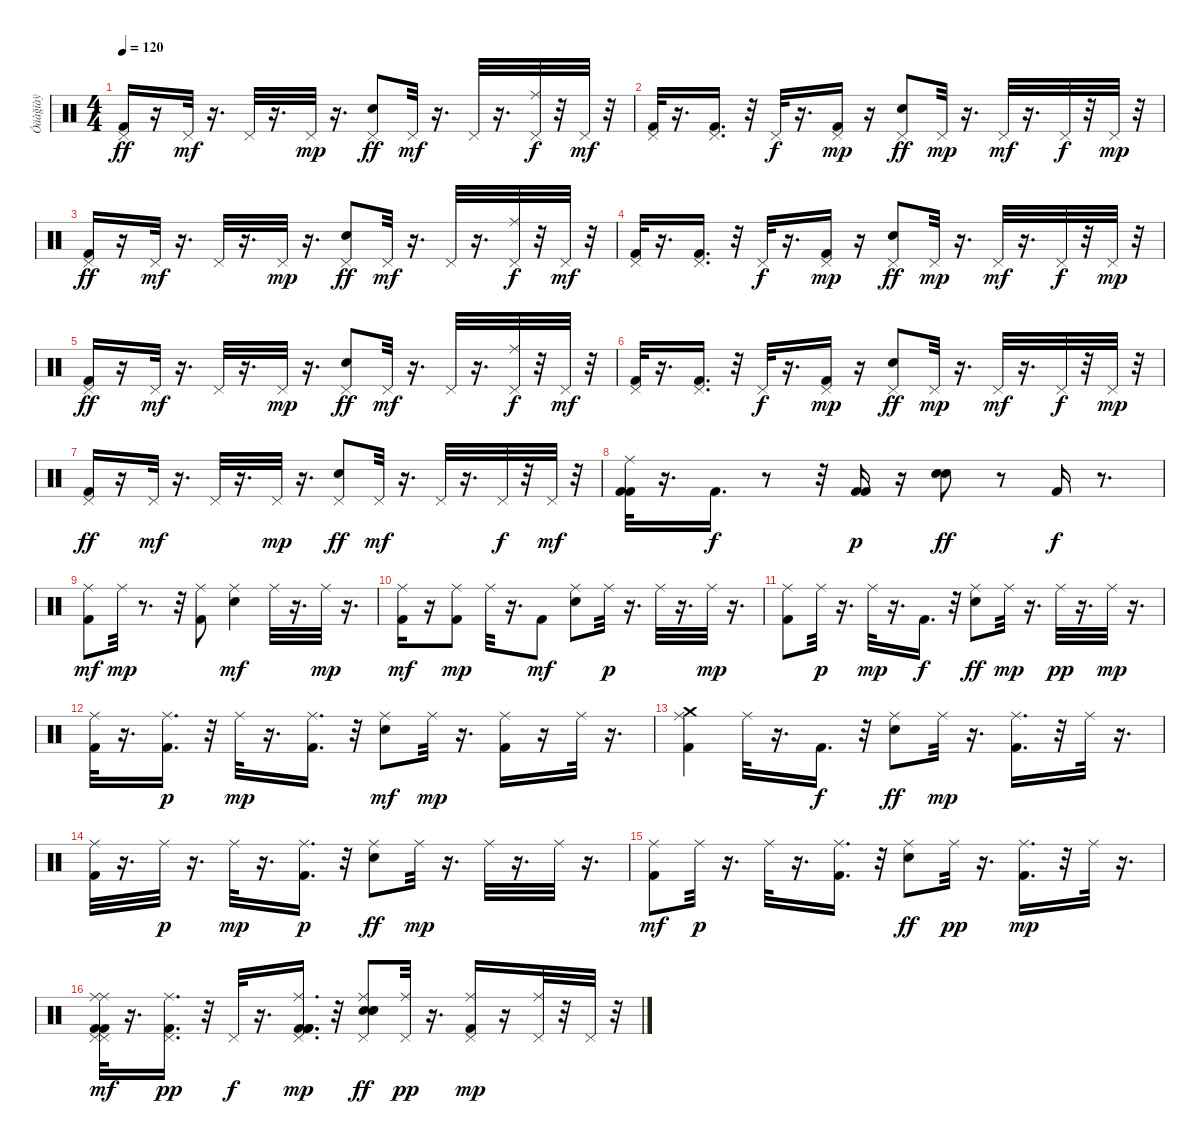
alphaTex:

\track ("Óäàğíàÿ" "Óäàğíàÿ") {instrument percussion}
\staff {score}
\articulation defaults
\ts (4 4)
\tempo 120
\clef neutral
\ks c
("Kick (hit) 2" "Pedal Hi-Hat (hit)").16{dy ff} r.16 "Pedal Hi-Hat (hit)".32{dy mf} r.16{d} "Pedal Hi-Hat (hit)".32 r.16{d} "Pedal Hi-Hat (hit)".32{dy mp} r.16{d} ("Pedal Hi-Hat (hit)" "Snare (hit) 2").8{dy ff} "Pedal Hi-Hat (hit)".32{dy mf} r.16{d} "Pedal Hi-Hat (hit)".32 r.16{d} ("Ride (middle)" "Pedal Hi-Hat (hit)").32{dy f} r.32 "Pedal Hi-Hat (hit)".32{dy mf} r.32 |
("Kick (hit) 2" "Pedal Hi-Hat (hit)").32 r.16{d} ("Kick (hit) 2" "Pedal Hi-Hat (hit)").16{d} r.32 "Pedal Hi-Hat (hit)".32{dy f} r.16{d} ("Kick (hit) 2" "Pedal Hi-Hat (hit)").16{dy mp} r.16 ("Pedal Hi-Hat (hit)" "Snare (hit) 2").8{dy ff} "Pedal Hi-Hat (hit)".32{dy mp} r.16{d} "Pedal Hi-Hat (hit)".32{dy mf} r.16{d} "Pedal Hi-Hat (hit)".32{dy f} r.32 "Pedal Hi-Hat (hit)".32{dy mp} r.32 |
("Kick (hit) 2" "Pedal Hi-Hat (hit)").16{dy ff} r.16 "Pedal Hi-Hat (hit)".32{dy mf} r.16{d} "Pedal Hi-Hat (hit)".32 r.16{d} "Pedal Hi-Hat (hit)".32{dy mp} r.16{d} ("Pedal Hi-Hat (hit)" "Snare (hit) 2").8{dy ff} "Pedal Hi-Hat (hit)".32{dy mf} r.16{d} "Pedal Hi-Hat (hit)".32 r.16{d} ("Ride (middle)" "Pedal Hi-Hat (hit)").32{dy f} r.32 "Pedal Hi-Hat (hit)".32{dy mf} r.32 |
("Kick (hit) 2" "Pedal Hi-Hat (hit)").32 r.16{d} ("Kick (hit) 2" "Pedal Hi-Hat (hit)").16{d} r.32 "Pedal Hi-Hat (hit)".32{dy f} r.16{d} ("Kick (hit) 2" "Pedal Hi-Hat (hit)").16{dy mp} r.16 ("Pedal Hi-Hat (hit)" "Snare (hit) 2").8{dy ff} "Pedal Hi-Hat (hit)".32{dy mp} r.16{d} "Pedal Hi-Hat (hit)".32{dy mf} r.16{d} "Pedal Hi-Hat (hit)".32{dy f} r.32 "Pedal Hi-Hat (hit)".32{dy mp} r.32 |
("Kick (hit) 2" "Pedal Hi-Hat (hit)").16{dy ff} r.16 "Pedal Hi-Hat (hit)".32{dy mf} r.16{d} "Pedal Hi-Hat (hit)".32 r.16{d} "Pedal Hi-Hat (hit)".32{dy mp} r.16{d} ("Pedal Hi-Hat (hit)" "Snare (hit) 2").8{dy ff} "Pedal Hi-Hat (hit)".32{dy mf} r.16{d} "Pedal Hi-Hat (hit)".32 r.16{d} ("Ride (middle)" "Pedal Hi-Hat (hit)").32{dy f} r.32 "Pedal Hi-Hat (hit)".32{dy mf} r.32 |
("Kick (hit) 2" "Pedal Hi-Hat (hit)").32 r.16{d} ("Kick (hit) 2" "Pedal Hi-Hat (hit)").16{d} r.32 "Pedal Hi-Hat (hit)".32{dy f} r.16{d} ("Kick (hit) 2" "Pedal Hi-Hat (hit)").16{dy mp} r.16 ("Pedal Hi-Hat (hit)" "Snare (hit) 2").8{dy ff} "Pedal Hi-Hat (hit)".32{dy mp} r.16{d} "Pedal Hi-Hat (hit)".32{dy mf} r.16{d} "Pedal Hi-Hat (hit)".32{dy f} r.32 "Pedal Hi-Hat (hit)".32{dy mp} r.32 |
("Kick (hit) 2" "Pedal Hi-Hat (hit)").16{dy ff} r.16 "Pedal Hi-Hat (hit)".32{dy mf} r.16{d} "Pedal Hi-Hat (hit)".32 r.16{d} "Pedal Hi-Hat (hit)".32{dy mp} r.16{d} ("Pedal Hi-Hat (hit)" "Snare (hit) 2").8{dy ff} "Pedal Hi-Hat (hit)".32{dy mf} r.16{d} "Pedal Hi-Hat (hit)".32 r.16{d} "Pedal Hi-Hat (hit)".32{dy f} r.32 "Pedal Hi-Hat (hit)".32{dy mf} r.32 |
("Ride (middle)" "Kick (hit) 2" "Kick (hit) 2").32 r.16{d} "Kick (hit) 2".16{d dy f} r.8 r.32 ("Kick (hit) 2" "Kick (hit) 2").16{dy p} r.16 ("Snare (hit) 2" "Snare (hit) 2").8{dy ff} r.8 "Kick (hit) 2".16{dy f} r.8{d} |
("Ride (middle)" "Kick (hit) 2").8{dy mf} "Ride (middle)".32{dy mp} r.8{d} r.32 ("Kick (hit) 2" "Ride (middle)").8 ("Snare (hit) 2" "Ride (middle)").4{dy mf} "Ride (middle)".32 r.16{d} "Ride (middle)".32{dy mp} r.16{d} |
("Ride (middle)" "Kick (hit) 2").16{dy mf} r.16 ("Kick (hit) 2" "Ride (middle)").8{dy mp} "Ride (middle)".32 r.16{d} "Kick (hit) 2".8{dy mf} ("Ride (middle)" "Snare (hit) 2").8 "Ride (middle)".32{dy p} r.16{d} "Ride (middle)".32 r.16{d} "Ride (middle)".32{dy mp} r.16{d} |
("Kick (hit) 2" "Ride (middle)").8 "Ride (middle)".32{dy p} r.16{d} "Ride (middle)".32{dy mp} r.16{d} "Kick (hit) 2".16{d dy f} r.32 ("Ride (middle)" "Snare (hit) 2").8{dy ff} "Ride (middle)".32{dy mp} r.16{d} "Ride (middle)".32{dy pp} r.16{d} "Ride (middle)".32{dy mp} r.16{d} |
("Kick (hit) 2" "Ride (middle)").32 r.16{d} ("Kick (hit) 2" "Ride (middle)").16{d dy p} r.32 "Ride (middle)".32{dy mp} r.16{d} ("Kick (hit) 2" "Ride (middle)").16{d} r.32 ("Snare (hit) 2" "Ride (middle)").8{dy mf} "Ride (middle)".32{dy mp} r.16{d} ("Kick (hit) 2" "Ride (middle)").16 r.16 "Ride (middle)".32 r.16{d} |
("Kick (hit) 2" "Crash medium (hit)" "Ride (middle)").4 "Ride (middle)".32 r.16{d} "Kick (hit) 2".16{d dy f} r.32 ("Ride (middle)" "Snare (hit) 2").8{dy ff} "Ride (middle)".32{dy mp} r.16{d} ("Kick (hit) 2" "Ride (middle)").16{d} r.32 "Ride (middle)".32 r.16{d} |
("Kick (hit) 2" "Ride (middle)").32 r.16{d} "Ride (middle)".32{dy p} r.16{d} "Ride (middle)".32{dy mp} r.16{d} ("Ride (middle)" "Kick (hit) 2").16{d dy p} r.32 ("Ride (middle)" "Snare (hit) 2").8{dy ff} "Ride (middle)".32{dy mp} r.16{d} "Ride (middle)".32 r.16{d} "Ride (middle)".32 r.16{d} |
("Ride (middle)" "Kick (hit) 2").8{dy mf} "Ride (middle)".32{dy p} r.16{d} "Ride (middle)".32 r.16{d} ("Ride (middle)" "Kick (hit) 2").16{d} r.32 ("Ride (middle)" "Snare (hit) 2").8{dy ff} "Ride (middle)".32{dy pp} r.16{d} ("Kick (hit) 2" "Ride (middle)").16{d dy mp} r.32 "Ride (middle)".32 r.16{d} |
("Ride (middle)" "Pedal Hi-Hat (hit)" "Kick (hit) 2" "Kick (hit) 2" "Pedal Hi-Hat (hit)" "Ride (middle)").32{dy mf} r.16{d} ("Kick (hit) 2" "Pedal Hi-Hat (hit)" "Ride (middle)").16{d dy pp} r.32 "Pedal Hi-Hat (hit)".32{dy f} r.16{d} ("Kick (hit) 2" "Kick (hit) 2" "Pedal Hi-Hat (hit)" "Ride (middle)" "Kick (hit) 2").16{d dy mp} r.32 ("Snare (hit) 2" "Pedal Hi-Hat (hit)" "Snare (hit) 2" "Ride (middle)" "Snare (hit) 2").8{dy ff} ("Pedal Hi-Hat (hit)" "Ride (middle)").32{dy pp} r.16{d} ("Kick (hit) 2" "Pedal Hi-Hat (hit)" "Ride (middle)").16{dy mp} r.16 ("Pedal Hi-Hat (hit)" "Ride (middle)").32 r.32 "Pedal Hi-Hat (hit)".32 r.32
